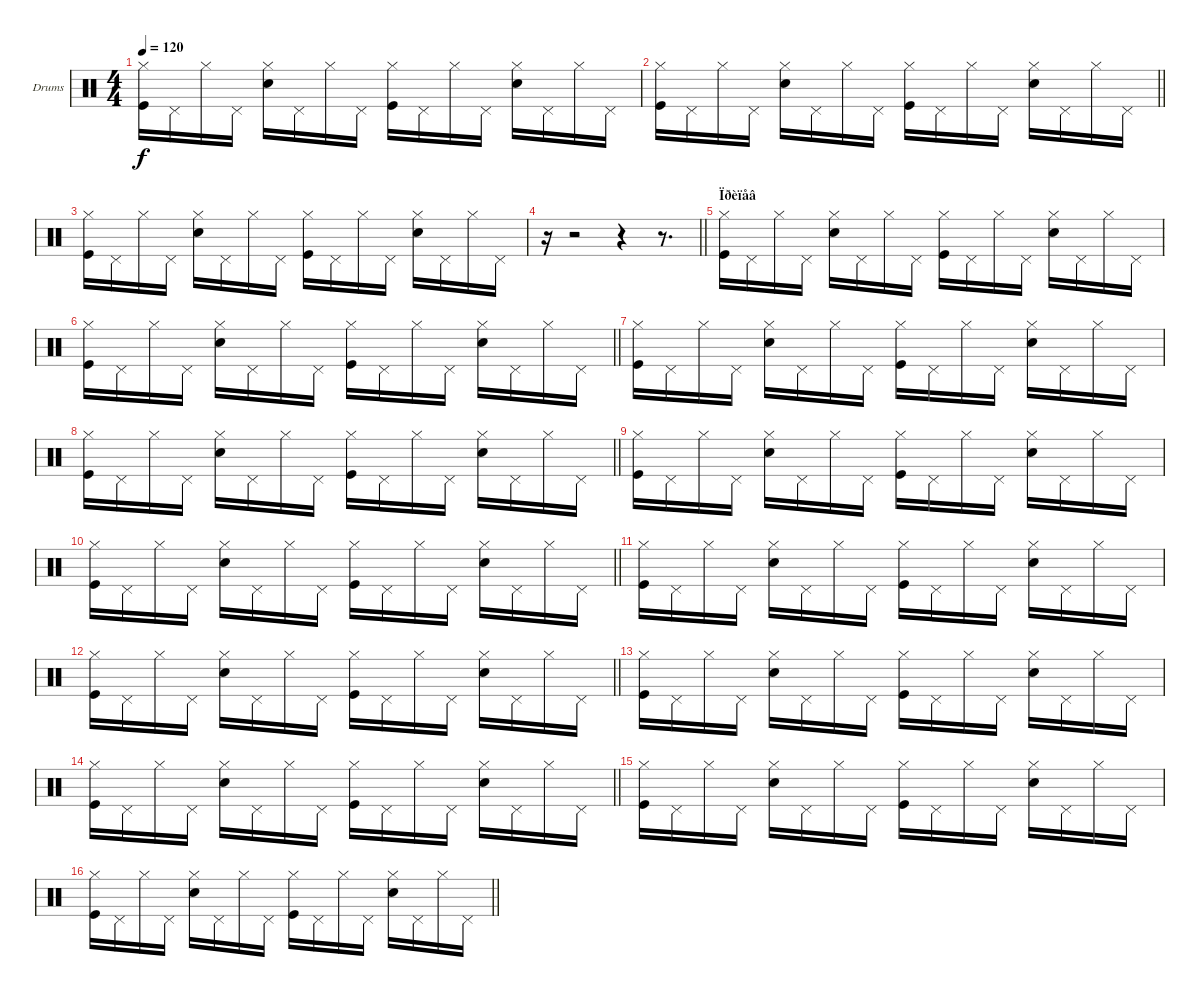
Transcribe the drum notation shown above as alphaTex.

\bracketExtendMode groupsimilarinstruments
\firstSystemTrackNameOrientation horizontal
\otherSystemsTrackNameOrientation horizontal
\track ("Drumkit" "Drums") {instrument percussion}
\staff {score}
\articulation defaults
\ts (4 4)
\tempo 120
\clef neutral
\ks c
("Hi-Hat (closed)" "Kick (hit)").16{dy f} "Pedal Hi-Hat (hit)".16 "Hi-Hat (closed)".16 "Pedal Hi-Hat (hit)".16 ("Hi-Hat (closed)" "Snare (hit) 2").16 "Pedal Hi-Hat (hit)".16 "Hi-Hat (closed)".16 "Pedal Hi-Hat (hit)".16 ("Hi-Hat (closed)" "Kick (hit)").16 "Pedal Hi-Hat (hit)".16 "Hi-Hat (closed)".16 "Pedal Hi-Hat (hit)".16 ("Hi-Hat (closed)" "Snare (hit) 2").16 "Pedal Hi-Hat (hit)".16 "Hi-Hat (closed)".16 "Pedal Hi-Hat (hit)".16 |
\barLineRight lightlight
("Hi-Hat (closed)" "Kick (hit)").16 "Pedal Hi-Hat (hit)".16 "Hi-Hat (closed)".16 "Pedal Hi-Hat (hit)".16 ("Hi-Hat (closed)" "Snare (hit) 2").16 "Pedal Hi-Hat (hit)".16 "Hi-Hat (closed)".16 "Pedal Hi-Hat (hit)".16 ("Hi-Hat (closed)" "Kick (hit)").16 "Pedal Hi-Hat (hit)".16 "Hi-Hat (closed)".16 "Pedal Hi-Hat (hit)".16 ("Hi-Hat (closed)" "Snare (hit) 2").16 "Pedal Hi-Hat (hit)".16 "Hi-Hat (closed)".16 "Pedal Hi-Hat (hit)".16 |
("Hi-Hat (closed)" "Kick (hit)").16 "Pedal Hi-Hat (hit)".16 "Hi-Hat (closed)".16 "Pedal Hi-Hat (hit)".16 ("Hi-Hat (closed)" "Snare (hit) 2").16 "Pedal Hi-Hat (hit)".16 "Hi-Hat (closed)".16 "Pedal Hi-Hat (hit)".16 ("Hi-Hat (closed)" "Kick (hit)").16 "Pedal Hi-Hat (hit)".16 "Hi-Hat (closed)".16 "Pedal Hi-Hat (hit)".16 ("Hi-Hat (closed)" "Snare (hit) 2").16 "Pedal Hi-Hat (hit)".16 "Hi-Hat (closed)".16 "Pedal Hi-Hat (hit)".16 |
\barLineRight lightlight
r.16 r.2 r.4 r.8{d} |
\section ("" "Ïðèïåâ")
("Hi-Hat (closed)" "Kick (hit)").16 "Pedal Hi-Hat (hit)".16 "Hi-Hat (closed)".16 "Pedal Hi-Hat (hit)".16 ("Hi-Hat (closed)" "Snare (hit) 2").16 "Pedal Hi-Hat (hit)".16 "Hi-Hat (closed)".16 "Pedal Hi-Hat (hit)".16 ("Hi-Hat (closed)" "Kick (hit)").16 "Pedal Hi-Hat (hit)".16 "Hi-Hat (closed)".16 "Pedal Hi-Hat (hit)".16 ("Hi-Hat (closed)" "Snare (hit) 2").16 "Pedal Hi-Hat (hit)".16 "Hi-Hat (closed)".16 "Pedal Hi-Hat (hit)".16 |
\barLineRight lightlight
("Hi-Hat (closed)" "Kick (hit)").16 "Pedal Hi-Hat (hit)".16 "Hi-Hat (closed)".16 "Pedal Hi-Hat (hit)".16 ("Hi-Hat (closed)" "Snare (hit) 2").16 "Pedal Hi-Hat (hit)".16 "Hi-Hat (closed)".16 "Pedal Hi-Hat (hit)".16 ("Hi-Hat (closed)" "Kick (hit)").16 "Pedal Hi-Hat (hit)".16 "Hi-Hat (closed)".16 "Pedal Hi-Hat (hit)".16 ("Hi-Hat (closed)" "Snare (hit) 2").16 "Pedal Hi-Hat (hit)".16 "Hi-Hat (closed)".16 "Pedal Hi-Hat (hit)".16 |
("Hi-Hat (closed)" "Kick (hit)").16 "Pedal Hi-Hat (hit)".16 "Hi-Hat (closed)".16 "Pedal Hi-Hat (hit)".16 ("Hi-Hat (closed)" "Snare (hit) 2").16 "Pedal Hi-Hat (hit)".16 "Hi-Hat (closed)".16 "Pedal Hi-Hat (hit)".16 ("Hi-Hat (closed)" "Kick (hit)").16 "Pedal Hi-Hat (hit)".16 "Hi-Hat (closed)".16 "Pedal Hi-Hat (hit)".16 ("Hi-Hat (closed)" "Snare (hit) 2").16 "Pedal Hi-Hat (hit)".16 "Hi-Hat (closed)".16 "Pedal Hi-Hat (hit)".16 |
\barLineRight lightlight
("Hi-Hat (closed)" "Kick (hit)").16 "Pedal Hi-Hat (hit)".16 "Hi-Hat (closed)".16 "Pedal Hi-Hat (hit)".16 ("Hi-Hat (closed)" "Snare (hit) 2").16 "Pedal Hi-Hat (hit)".16 "Hi-Hat (closed)".16 "Pedal Hi-Hat (hit)".16 ("Hi-Hat (closed)" "Kick (hit)").16 "Pedal Hi-Hat (hit)".16 "Hi-Hat (closed)".16 "Pedal Hi-Hat (hit)".16 ("Hi-Hat (closed)" "Snare (hit) 2").16 "Pedal Hi-Hat (hit)".16 "Hi-Hat (closed)".16 "Pedal Hi-Hat (hit)".16 |
("Hi-Hat (closed)" "Kick (hit)").16 "Pedal Hi-Hat (hit)".16 "Hi-Hat (closed)".16 "Pedal Hi-Hat (hit)".16 ("Hi-Hat (closed)" "Snare (hit) 2").16 "Pedal Hi-Hat (hit)".16 "Hi-Hat (closed)".16 "Pedal Hi-Hat (hit)".16 ("Hi-Hat (closed)" "Kick (hit)").16 "Pedal Hi-Hat (hit)".16 "Hi-Hat (closed)".16 "Pedal Hi-Hat (hit)".16 ("Hi-Hat (closed)" "Snare (hit) 2").16 "Pedal Hi-Hat (hit)".16 "Hi-Hat (closed)".16 "Pedal Hi-Hat (hit)".16 |
\barLineRight lightlight
("Hi-Hat (closed)" "Kick (hit)").16 "Pedal Hi-Hat (hit)".16 "Hi-Hat (closed)".16 "Pedal Hi-Hat (hit)".16 ("Hi-Hat (closed)" "Snare (hit) 2").16 "Pedal Hi-Hat (hit)".16 "Hi-Hat (closed)".16 "Pedal Hi-Hat (hit)".16 ("Hi-Hat (closed)" "Kick (hit)").16 "Pedal Hi-Hat (hit)".16 "Hi-Hat (closed)".16 "Pedal Hi-Hat (hit)".16 ("Hi-Hat (closed)" "Snare (hit) 2").16 "Pedal Hi-Hat (hit)".16 "Hi-Hat (closed)".16 "Pedal Hi-Hat (hit)".16 |
("Hi-Hat (closed)" "Kick (hit)").16 "Pedal Hi-Hat (hit)".16 "Hi-Hat (closed)".16 "Pedal Hi-Hat (hit)".16 ("Hi-Hat (closed)" "Snare (hit) 2").16 "Pedal Hi-Hat (hit)".16 "Hi-Hat (closed)".16 "Pedal Hi-Hat (hit)".16 ("Hi-Hat (closed)" "Kick (hit)").16 "Pedal Hi-Hat (hit)".16 "Hi-Hat (closed)".16 "Pedal Hi-Hat (hit)".16 ("Hi-Hat (closed)" "Snare (hit) 2").16 "Pedal Hi-Hat (hit)".16 "Hi-Hat (closed)".16 "Pedal Hi-Hat (hit)".16 |
\barLineRight lightlight
("Hi-Hat (closed)" "Kick (hit)").16 "Pedal Hi-Hat (hit)".16 "Hi-Hat (closed)".16 "Pedal Hi-Hat (hit)".16 ("Hi-Hat (closed)" "Snare (hit) 2").16 "Pedal Hi-Hat (hit)".16 "Hi-Hat (closed)".16 "Pedal Hi-Hat (hit)".16 ("Hi-Hat (closed)" "Kick (hit)").16 "Pedal Hi-Hat (hit)".16 "Hi-Hat (closed)".16 "Pedal Hi-Hat (hit)".16 ("Hi-Hat (closed)" "Snare (hit) 2").16 "Pedal Hi-Hat (hit)".16 "Hi-Hat (closed)".16 "Pedal Hi-Hat (hit)".16 |
("Hi-Hat (closed)" "Kick (hit)").16 "Pedal Hi-Hat (hit)".16 "Hi-Hat (closed)".16 "Pedal Hi-Hat (hit)".16 ("Hi-Hat (closed)" "Snare (hit) 2").16 "Pedal Hi-Hat (hit)".16 "Hi-Hat (closed)".16 "Pedal Hi-Hat (hit)".16 ("Hi-Hat (closed)" "Kick (hit)").16 "Pedal Hi-Hat (hit)".16 "Hi-Hat (closed)".16 "Pedal Hi-Hat (hit)".16 ("Hi-Hat (closed)" "Snare (hit) 2").16 "Pedal Hi-Hat (hit)".16 "Hi-Hat (closed)".16 "Pedal Hi-Hat (hit)".16 |
\barLineRight lightlight
("Hi-Hat (closed)" "Kick (hit)").16 "Pedal Hi-Hat (hit)".16 "Hi-Hat (closed)".16 "Pedal Hi-Hat (hit)".16 ("Hi-Hat (closed)" "Snare (hit) 2").16 "Pedal Hi-Hat (hit)".16 "Hi-Hat (closed)".16 "Pedal Hi-Hat (hit)".16 ("Hi-Hat (closed)" "Kick (hit)").16 "Pedal Hi-Hat (hit)".16 "Hi-Hat (closed)".16 "Pedal Hi-Hat (hit)".16 ("Hi-Hat (closed)" "Snare (hit) 2").16 "Pedal Hi-Hat (hit)".16 "Hi-Hat (closed)".16 "Pedal Hi-Hat (hit)".16 |
("Hi-Hat (closed)" "Kick (hit)").16 "Pedal Hi-Hat (hit)".16 "Hi-Hat (closed)".16 "Pedal Hi-Hat (hit)".16 ("Hi-Hat (closed)" "Snare (hit) 2").16 "Pedal Hi-Hat (hit)".16 "Hi-Hat (closed)".16 "Pedal Hi-Hat (hit)".16 ("Hi-Hat (closed)" "Kick (hit)").16 "Pedal Hi-Hat (hit)".16 "Hi-Hat (closed)".16 "Pedal Hi-Hat (hit)".16 ("Hi-Hat (closed)" "Snare (hit) 2").16 "Pedal Hi-Hat (hit)".16 "Hi-Hat (closed)".16 "Pedal Hi-Hat (hit)".16 |
\barLineRight lightlight
("Hi-Hat (closed)" "Kick (hit)").16 "Pedal Hi-Hat (hit)".16 "Hi-Hat (closed)".16 "Pedal Hi-Hat (hit)".16 ("Hi-Hat (closed)" "Snare (hit) 2").16 "Pedal Hi-Hat (hit)".16 "Hi-Hat (closed)".16 "Pedal Hi-Hat (hit)".16 ("Hi-Hat (closed)" "Kick (hit)").16 "Pedal Hi-Hat (hit)".16 "Hi-Hat (closed)".16 "Pedal Hi-Hat (hit)".16 ("Hi-Hat (closed)" "Snare (hit) 2").16 "Pedal Hi-Hat (hit)".16 "Hi-Hat (closed)".16 "Pedal Hi-Hat (hit)".16
